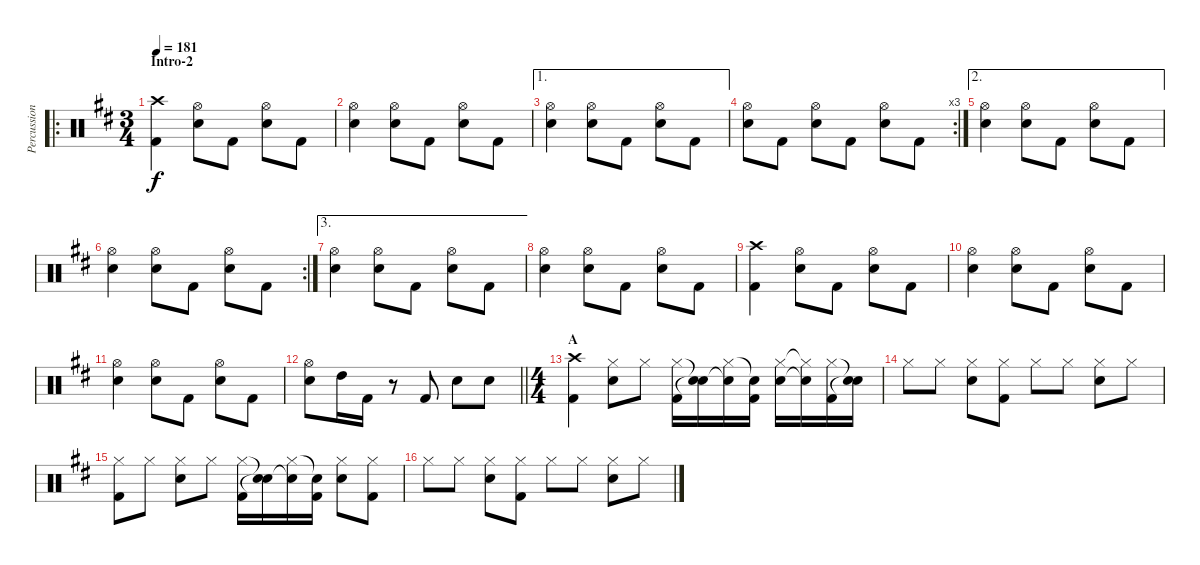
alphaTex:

\track ("Percussion" "Percussion") {instrument percussion}
\staff {score}
\articulation defaults
\ro
\ts (3 4)
\section ("" "Intro-2")
\tempo 181
\clef neutral
\ks d
("Crash high (hit)" "Kick (hit) 2").4{dy f} ("Hi-Hat (open)" "Snare (hit) 2").8 "Kick (hit) 2".8 ("Hi-Hat (open)" "Snare (hit) 2").8 "Kick (hit) 2".8 |
("Hi-Hat (open)" "Snare (hit) 2").4 ("Hi-Hat (open)" "Snare (hit) 2").8 "Kick (hit) 2".8 ("Hi-Hat (open)" "Snare (hit) 2").8 "Kick (hit) 2".8 |
\ae 1
("Hi-Hat (open)" "Snare (hit) 2").4 ("Hi-Hat (open)" "Snare (hit) 2").8 "Kick (hit) 2".8 ("Hi-Hat (open)" "Snare (hit) 2").8 "Kick (hit) 2".8 |
\rc 3
("Hi-Hat (open)" "Snare (hit) 2").8 "Kick (hit) 2".8 ("Hi-Hat (open)" "Snare (hit) 2").8 "Kick (hit) 2".8 ("Hi-Hat (open)" "Snare (hit) 2").8 "Kick (hit) 2".8 |
\ae 2
("Hi-Hat (open)" "Snare (hit) 2").4 ("Hi-Hat (open)" "Snare (hit) 2").8 "Kick (hit) 2".8 ("Hi-Hat (open)" "Snare (hit) 2").8 "Kick (hit) 2".8 |
\rc 2
("Hi-Hat (open)" "Snare (hit) 2").4 ("Hi-Hat (open)" "Snare (hit) 2").8 "Kick (hit) 2".8 ("Hi-Hat (open)" "Snare (hit) 2").8 "Kick (hit) 2".8 |
\ae 3
("Hi-Hat (open)" "Snare (hit) 2").4 ("Hi-Hat (open)" "Snare (hit) 2").8 "Kick (hit) 2".8 ("Hi-Hat (open)" "Snare (hit) 2").8 "Kick (hit) 2".8 |
("Hi-Hat (open)" "Snare (hit) 2").4 ("Hi-Hat (open)" "Snare (hit) 2").8 "Kick (hit) 2".8 ("Hi-Hat (open)" "Snare (hit) 2").8 "Kick (hit) 2".8 |
("Crash high (hit)" "Kick (hit) 2").4 ("Hi-Hat (open)" "Snare (hit) 2").8 "Kick (hit) 2".8 ("Hi-Hat (open)" "Snare (hit) 2").8 "Kick (hit) 2".8 |
("Hi-Hat (open)" "Snare (hit) 2").4 ("Hi-Hat (open)" "Snare (hit) 2").8 "Kick (hit) 2".8 ("Hi-Hat (open)" "Snare (hit) 2").8 "Kick (hit) 2".8 |
("Hi-Hat (open)" "Snare (hit) 2").4 ("Hi-Hat (open)" "Snare (hit) 2").8 "Kick (hit) 2".8 ("Hi-Hat (open)" "Snare (hit) 2").8 "Kick (hit) 2".8 |
\barLineRight lightlight
("Hi-Hat (open)" "Snare (hit) 2").8 "High Tom (hit)".16 "Kick (hit) 2".16 r.8 "Kick (hit) 2".8 "Snare (hit) 2".8 "Snare (hit) 2".8 |
\ts (4 4)
\section ("" "A")
("Crash high (hit)" "Kick (hit) 2").4 ("Hi-Hat (closed)" "Snare (hit) 2").8 "Hi-Hat (closed)".8 ("Hi-Hat (closed)" "Kick (hit) 2").16 ("Snare (hit)"{t} "Snare (hit)"{t}).16 ("Hi-Hat (closed)" "Snare (hit)"{t}).16 ("Snare (hit)"{t} "Kick (hit) 2").16 ("Hi-Hat (closed)" "Snare (hit) 2").16 ("Hi-Hat (closed)"{t} "Snare (hit)"{t}).16 ("Hi-Hat (closed)" "Kick (hit) 2").16 ("Snare (hit)"{t} "Snare (hit)"{t}).16 |
"Hi-Hat (closed)".8 "Hi-Hat (closed)".8 ("Hi-Hat (closed)" "Snare (hit) 2").8 ("Hi-Hat (closed)" "Kick (hit) 2").8 "Hi-Hat (closed)".8 "Hi-Hat (closed)".8 ("Hi-Hat (closed)" "Snare (hit) 2").8 "Hi-Hat (closed)".8 |
("Hi-Hat (closed)" "Kick (hit) 2").8 "Hi-Hat (closed)".8 ("Hi-Hat (closed)" "Snare (hit) 2").8 "Hi-Hat (closed)".8 ("Hi-Hat (closed)" "Kick (hit) 2").16 ("Snare (hit)"{t} "Snare (hit)"{t}).16 ("Hi-Hat (closed)" "Snare (hit)"{t}).16 ("Snare (hit)"{t} "Kick (hit) 2").16 ("Hi-Hat (closed)" "Snare (hit) 2").8 ("Hi-Hat (closed)" "Kick (hit) 2").8 |
"Hi-Hat (closed)".8 "Hi-Hat (closed)".8 ("Hi-Hat (closed)" "Snare (hit) 2").8 ("Hi-Hat (closed)" "Kick (hit) 2").8 "Hi-Hat (closed)".8 "Hi-Hat (closed)".8 ("Hi-Hat (closed)" "Snare (hit) 2").8 "Hi-Hat (closed)".8
